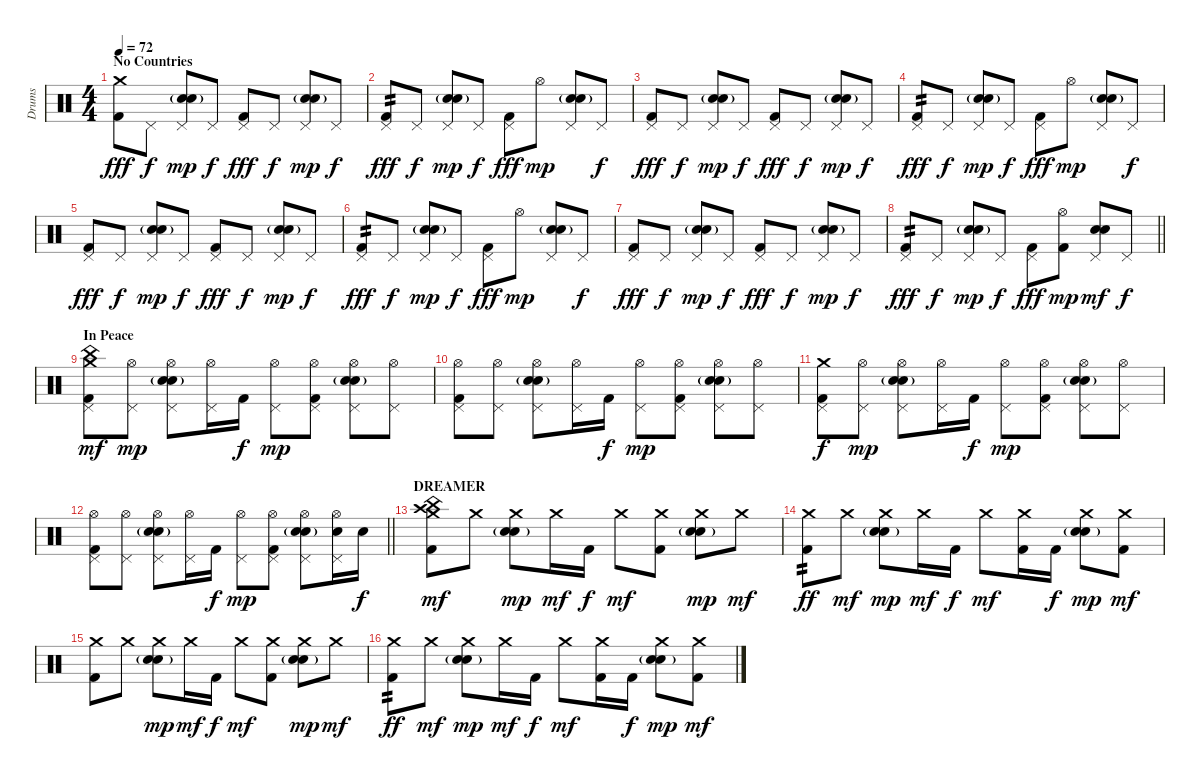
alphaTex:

\track ("Drums" "Drums") {instrument percussion}
\staff {score}
\articulation defaults
\ts (4 4)
\section ("" "No Countries")
\tempo 72
\clef neutral
\ks c
("Crash medium (hit)" "Kick (hit) 2").8{dy fff} "Pedal Hi-Hat (hit)".8{dy f} ("Pedal Hi-Hat (hit)" "Snare (hit) 2" "Electric Snare (hit)"{g}).8{dy mp} "Pedal Hi-Hat (hit)".8{dy f} ("Pedal Hi-Hat (hit)" "Kick (hit) 2").8{dy fff} "Pedal Hi-Hat (hit)".8{dy f} ("Pedal Hi-Hat (hit)" "Snare (hit) 2" "Electric Snare (hit)"{g}).8{dy mp} "Pedal Hi-Hat (hit)".8{dy f} |
("Pedal Hi-Hat (hit)" "Kick (hit) 2").8{tp 2 dy fff} "Pedal Hi-Hat (hit)".8{dy f} ("Pedal Hi-Hat (hit)" "Snare (hit) 2" "Electric Snare (hit)"{g}).8{dy mp} "Pedal Hi-Hat (hit)".8{dy f} ("Pedal Hi-Hat (hit)" "Kick (hit) 2").8{dy fff} "Hi-Hat (open)".8{dy mp} ("Pedal Hi-Hat (hit)" "Snare (hit) 2" "Electric Snare (hit)"{g}).8 "Pedal Hi-Hat (hit)".8{dy f} |
("Pedal Hi-Hat (hit)" "Kick (hit) 2").8{dy fff} "Pedal Hi-Hat (hit)".8{dy f} ("Pedal Hi-Hat (hit)" "Snare (hit) 2" "Electric Snare (hit)"{g}).8{dy mp} "Pedal Hi-Hat (hit)".8{dy f} ("Pedal Hi-Hat (hit)" "Kick (hit) 2").8{dy fff} "Pedal Hi-Hat (hit)".8{dy f} ("Pedal Hi-Hat (hit)" "Snare (hit) 2" "Electric Snare (hit)"{g}).8{dy mp} "Pedal Hi-Hat (hit)".8{dy f} |
("Pedal Hi-Hat (hit)" "Kick (hit) 2").8{tp 2 dy fff} "Pedal Hi-Hat (hit)".8{dy f} ("Pedal Hi-Hat (hit)" "Snare (hit) 2" "Electric Snare (hit)"{g}).8{dy mp} "Pedal Hi-Hat (hit)".8{dy f} ("Pedal Hi-Hat (hit)" "Kick (hit) 2").8{dy fff} "Hi-Hat (open)".8{dy mp} ("Pedal Hi-Hat (hit)" "Snare (hit) 2" "Electric Snare (hit)"{g}).8 "Pedal Hi-Hat (hit)".8{dy f} |
("Pedal Hi-Hat (hit)" "Kick (hit) 2").8{dy fff} "Pedal Hi-Hat (hit)".8{dy f} ("Pedal Hi-Hat (hit)" "Snare (hit) 2" "Electric Snare (hit)"{g}).8{dy mp} "Pedal Hi-Hat (hit)".8{dy f} ("Pedal Hi-Hat (hit)" "Kick (hit) 2").8{dy fff} "Pedal Hi-Hat (hit)".8{dy f} ("Pedal Hi-Hat (hit)" "Snare (hit) 2" "Electric Snare (hit)"{g}).8{dy mp} "Pedal Hi-Hat (hit)".8{dy f} |
("Pedal Hi-Hat (hit)" "Kick (hit) 2").8{tp 2 dy fff} "Pedal Hi-Hat (hit)".8{dy f} ("Pedal Hi-Hat (hit)" "Snare (hit) 2" "Electric Snare (hit)"{g}).8{dy mp} "Pedal Hi-Hat (hit)".8{dy f} ("Pedal Hi-Hat (hit)" "Kick (hit) 2").8{dy fff} "Hi-Hat (open)".8{dy mp} ("Pedal Hi-Hat (hit)" "Snare (hit) 2" "Electric Snare (hit)"{g}).8 "Pedal Hi-Hat (hit)".8{dy f} |
("Pedal Hi-Hat (hit)" "Kick (hit) 2").8{dy fff} "Pedal Hi-Hat (hit)".8{dy f} ("Pedal Hi-Hat (hit)" "Snare (hit) 2" "Electric Snare (hit)"{g}).8{dy mp} "Pedal Hi-Hat (hit)".8{dy f} ("Pedal Hi-Hat (hit)" "Kick (hit) 2").8{dy fff} "Pedal Hi-Hat (hit)".8{dy f} ("Pedal Hi-Hat (hit)" "Snare (hit) 2" "Electric Snare (hit)"{g}).8{dy mp} "Pedal Hi-Hat (hit)".8{dy f} |
\barLineRight lightlight
("Pedal Hi-Hat (hit)" "Kick (hit) 2").8{tp 2 dy fff} "Pedal Hi-Hat (hit)".8{dy f} ("Pedal Hi-Hat (hit)" "Snare (hit) 2" "Electric Snare (hit)"{g}).8{dy mp} "Pedal Hi-Hat (hit)".8{dy f} ("Pedal Hi-Hat (hit)" "Kick (hit) 2").8{dy fff} ("Hi-Hat (open)" "Kick (hit) 2").8{dy mp} ("Pedal Hi-Hat (hit)" "Snare (hit) 2" "Electric Snare (hit)").8{dy mf} "Pedal Hi-Hat (hit)".8{dy f} |
\section ("" "In Peace")
("Pedal Hi-Hat (hit)" "Crash medium (hit)" "China (hit)" "Kick (hit) 2").8{dy mf} ("Pedal Hi-Hat (hit)" "Hi-Hat (open)").8{dy mp} ("Pedal Hi-Hat (hit)" "Hi-Hat (open)" "Snare (hit) 2" "Electric Snare (hit)"{g}).8 ("Pedal Hi-Hat (hit)" "Hi-Hat (open)").16 "Kick (hit) 2".16{dy f} ("Pedal Hi-Hat (hit)" "Hi-Hat (open)").8{dy mp} ("Pedal Hi-Hat (hit)" "Hi-Hat (open)" "Kick (hit) 2").8 ("Pedal Hi-Hat (hit)" "Hi-Hat (open)" "Snare (hit) 2" "Electric Snare (hit)"{g}).8 ("Pedal Hi-Hat (hit)" "Hi-Hat (open)").8 |
("Pedal Hi-Hat (hit)" "Hi-Hat (open)" "Kick (hit) 2").8 ("Pedal Hi-Hat (hit)" "Hi-Hat (open)").8 ("Pedal Hi-Hat (hit)" "Hi-Hat (open)" "Snare (hit) 2" "Electric Snare (hit)"{g}).8 ("Pedal Hi-Hat (hit)" "Hi-Hat (open)").16 "Kick (hit) 2".16{dy f} ("Pedal Hi-Hat (hit)" "Hi-Hat (open)").8{dy mp} ("Pedal Hi-Hat (hit)" "Hi-Hat (open)" "Kick (hit) 2").8 ("Pedal Hi-Hat (hit)" "Hi-Hat (open)" "Snare (hit) 2" "Electric Snare (hit)"{g}).8 ("Pedal Hi-Hat (hit)" "Hi-Hat (open)").8 |
("Pedal Hi-Hat (hit)" "Crash medium (hit)" "Kick (hit) 2").8{dy f} ("Pedal Hi-Hat (hit)" "Hi-Hat (open)").8{dy mp} ("Pedal Hi-Hat (hit)" "Hi-Hat (open)" "Snare (hit) 2" "Electric Snare (hit)"{g}).8 ("Pedal Hi-Hat (hit)" "Hi-Hat (open)").16 "Kick (hit) 2".16{dy f} ("Pedal Hi-Hat (hit)" "Hi-Hat (open)").8{dy mp} ("Pedal Hi-Hat (hit)" "Hi-Hat (open)" "Kick (hit) 2").8 ("Pedal Hi-Hat (hit)" "Hi-Hat (open)" "Snare (hit) 2" "Electric Snare (hit)"{g}).8 ("Pedal Hi-Hat (hit)" "Hi-Hat (open)").8 |
\barLineRight lightlight
("Pedal Hi-Hat (hit)" "Hi-Hat (open)" "Kick (hit) 2").8 ("Pedal Hi-Hat (hit)" "Hi-Hat (open)").8 ("Pedal Hi-Hat (hit)" "Hi-Hat (open)" "Snare (hit) 2" "Electric Snare (hit)"{g}).8 ("Pedal Hi-Hat (hit)" "Hi-Hat (open)").16 "Kick (hit) 2".16{dy f} ("Pedal Hi-Hat (hit)" "Hi-Hat (open)").8{dy mp} ("Pedal Hi-Hat (hit)" "Hi-Hat (open)" "Kick (hit) 2").8 ("Pedal Hi-Hat (hit)" "Hi-Hat (open)" "Snare (hit) 2" "Electric Snare (hit)"{g}).8 ("Pedal Hi-Hat (hit)" "Hi-Hat (open)" "Electric Snare (hit)").16 "Electric Snare (hit)".16{dy f} |
\section ("" "DREAMER")
("Crash medium (hit)" "Crash high (hit)" "China (hit)" "Kick (hit) 2").8{dy mf} "Crash medium (hit)".8 ("Crash medium (hit)" "Snare (hit) 2" "Electric Snare (hit)"{g}).8{dy mp} "Crash medium (hit)".16{dy mf} "Kick (hit) 2".16{dy f} "Crash medium (hit)".8{dy mf} ("Crash medium (hit)" "Kick (hit) 2").8 ("Crash medium (hit)" "Snare (hit) 2" "Electric Snare (hit)"{g}).8{dy mp} "Crash medium (hit)".8{dy mf} |
("Crash medium (hit)" "Kick (hit) 2").8{tp 2 dy ff} "Crash medium (hit)".8{dy mf} ("Crash medium (hit)" "Snare (hit) 2" "Electric Snare (hit)"{g}).8{dy mp} "Crash medium (hit)".16{dy mf} "Kick (hit) 2".16{dy f} "Crash medium (hit)".8{dy mf} ("Crash medium (hit)" "Kick (hit) 2").16 "Kick (hit) 2".16{dy f} ("Crash medium (hit)" "Snare (hit) 2" "Electric Snare (hit)"{g}).8{dy mp} ("Crash medium (hit)" "Kick (hit) 2").8{dy mf} |
("Crash medium (hit)" "Kick (hit) 2").8 "Crash medium (hit)".8 ("Crash medium (hit)" "Snare (hit) 2" "Electric Snare (hit)"{g}).8{dy mp} "Crash medium (hit)".16{dy mf} "Kick (hit) 2".16{dy f} "Crash medium (hit)".8{dy mf} ("Crash medium (hit)" "Kick (hit) 2").8 ("Crash medium (hit)" "Snare (hit) 2" "Electric Snare (hit)"{g}).8{dy mp} "Crash medium (hit)".8{dy mf} |
("Crash medium (hit)" "Kick (hit) 2").8{tp 2 dy ff} "Crash medium (hit)".8{dy mf} ("Crash medium (hit)" "Snare (hit) 2" "Electric Snare (hit)"{g}).8{dy mp} "Crash medium (hit)".16{dy mf} "Kick (hit) 2".16{dy f} "Crash medium (hit)".8{dy mf} ("Crash medium (hit)" "Kick (hit) 2").16 "Kick (hit) 2".16{dy f} ("Crash medium (hit)" "Snare (hit) 2" "Electric Snare (hit)"{g}).8{dy mp} ("Crash medium (hit)" "Kick (hit) 2").8{dy mf}
